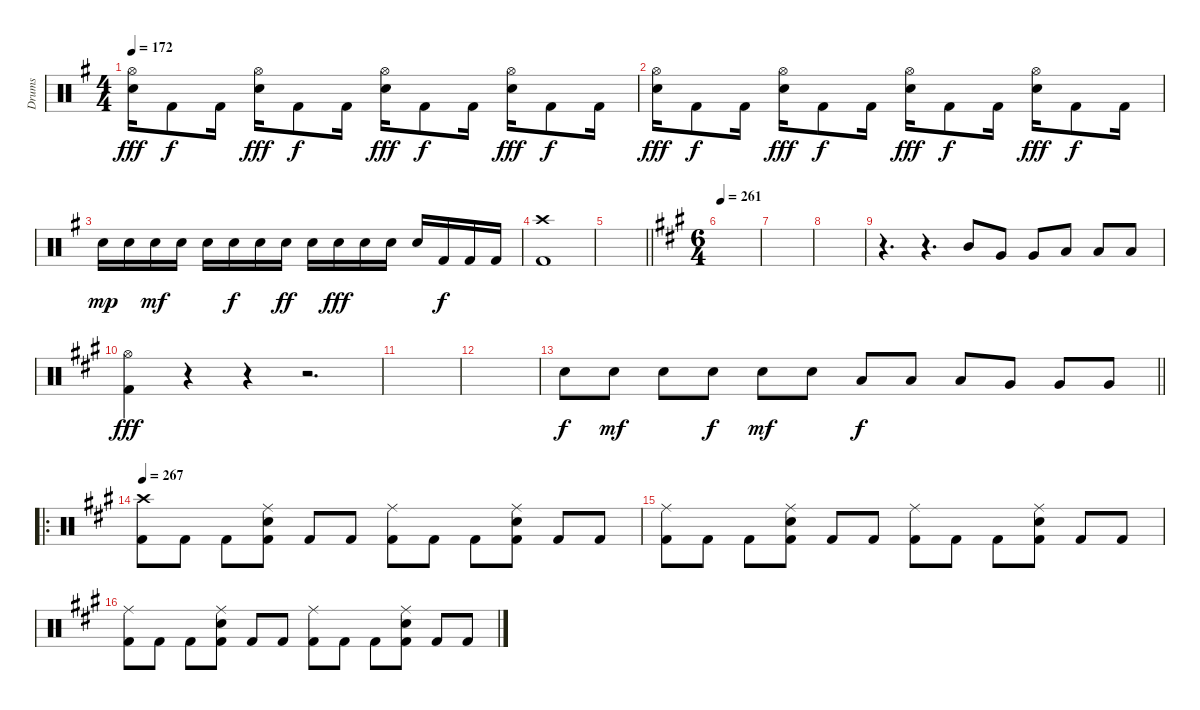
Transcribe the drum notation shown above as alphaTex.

\track ("Drums" "Drums") {instrument percussion}
\staff {score}
\articulation defaults
\ts (4 4)
\tempo 172
\clef neutral
\ks g
("Hi-Hat (open)" "Snare (hit) 2").16{dy fff} "Kick (hit) 2".8{dy f} "Kick (hit) 2".16 ("Hi-Hat (open)" "Snare (hit) 2").16{dy fff} "Kick (hit) 2".8{dy f} "Kick (hit) 2".16 ("Hi-Hat (open)" "Snare (hit) 2").16{dy fff} "Kick (hit) 2".8{dy f} "Kick (hit) 2".16 ("Hi-Hat (open)" "Snare (hit) 2").16{dy fff} "Kick (hit) 2".8{dy f} "Kick (hit) 2".16 |
("Hi-Hat (open)" "Snare (hit) 2").16{dy fff} "Kick (hit) 2".8{dy f} "Kick (hit) 2".16 ("Hi-Hat (open)" "Snare (hit) 2").16{dy fff} "Kick (hit) 2".8{dy f} "Kick (hit) 2".16 ("Hi-Hat (open)" "Snare (hit) 2").16{dy fff} "Kick (hit) 2".8{dy f} "Kick (hit) 2".16 ("Hi-Hat (open)" "Snare (hit) 2").16{dy fff} "Kick (hit) 2".8{dy f} "Kick (hit) 2".16 |
"Snare (hit) 2".16{dy mp} "Snare (hit) 2".16 "Snare (hit) 2".16{dy mf} "Snare (hit) 2".16 "Snare (hit) 2".16 "Snare (hit) 2".16{dy f} "Snare (hit) 2".16 "Snare (hit) 2".16{dy ff} "Snare (hit) 2".16 "Snare (hit) 2".16{dy fff} "Snare (hit) 2".16 "Snare (hit) 2".16 "Snare (hit) 2".16 "Kick (hit) 2".16{dy f} "Kick (hit) 2".16 "Kick (hit) 2".16 |
("Crash high (hit)" "Kick (hit) 2").1 |
\barLineRight lightlight
|
\ts (6 4)
\tempo 261
\ks a
|
|
|
r.4{d} r.4{d} "Mid Tom (hit)".8 "Very Low Tom (hit)".8 "Very Low Tom (hit)".8 "Low Tom (hit)".8 "Low Floor Tom (hit)".8 "Low Floor Tom (hit)".8 |
("Hi-Hat (open)" "Kick (hit) 2").4{dy fff} r.4 r.4 r.2{d} |
|
|
\barLineRight lightlight "Snare (hit) 2".8{dy f} "Snare (hit) 2".8{dy mf} "Snare (hit) 2".8 "Snare (hit) 2".8{dy f} "Snare (hit) 2".8{dy mf} "Snare (hit) 2".8 "Low Tom (hit)".8{dy f} "Low Tom (hit)".8 "Low Tom (hit)".8 "Very Low Tom (hit)".8 "Very Low Tom (hit)".8 "Very Low Tom (hit)".8
|
\ro
\tempo 267
("Crash high (hit)" "Kick (hit) 2").8 "Kick (hit) 2".8 "Kick (hit) 2".8 ("Ride (middle)" "Snare (hit) 2" "Kick (hit) 2").8 "Kick (hit) 2".8 "Kick (hit) 2".8 ("Ride (middle)" "Kick (hit) 2").8 "Kick (hit) 2".8 "Kick (hit) 2".8 ("Ride (middle)" "Snare (hit) 2" "Kick (hit) 2").8 "Kick (hit) 2".8 "Kick (hit) 2".8 |
("Ride (middle)" "Kick (hit) 2").8 "Kick (hit) 2".8 "Kick (hit) 2".8 ("Ride (middle)" "Snare (hit) 2" "Kick (hit) 2").8 "Kick (hit) 2".8 "Kick (hit) 2".8 ("Ride (middle)" "Kick (hit) 2").8 "Kick (hit) 2".8 "Kick (hit) 2".8 ("Ride (middle)" "Snare (hit) 2" "Kick (hit) 2").8 "Kick (hit) 2".8 "Kick (hit) 2".8 |
("Ride (middle)" "Kick (hit) 2").8 "Kick (hit) 2".8 "Kick (hit) 2".8 ("Ride (middle)" "Snare (hit) 2" "Kick (hit) 2").8 "Kick (hit) 2".8 "Kick (hit) 2".8 ("Ride (middle)" "Kick (hit) 2").8 "Kick (hit) 2".8 "Kick (hit) 2".8 ("Ride (middle)" "Snare (hit) 2" "Kick (hit) 2").8 "Kick (hit) 2".8 "Kick (hit) 2".8
